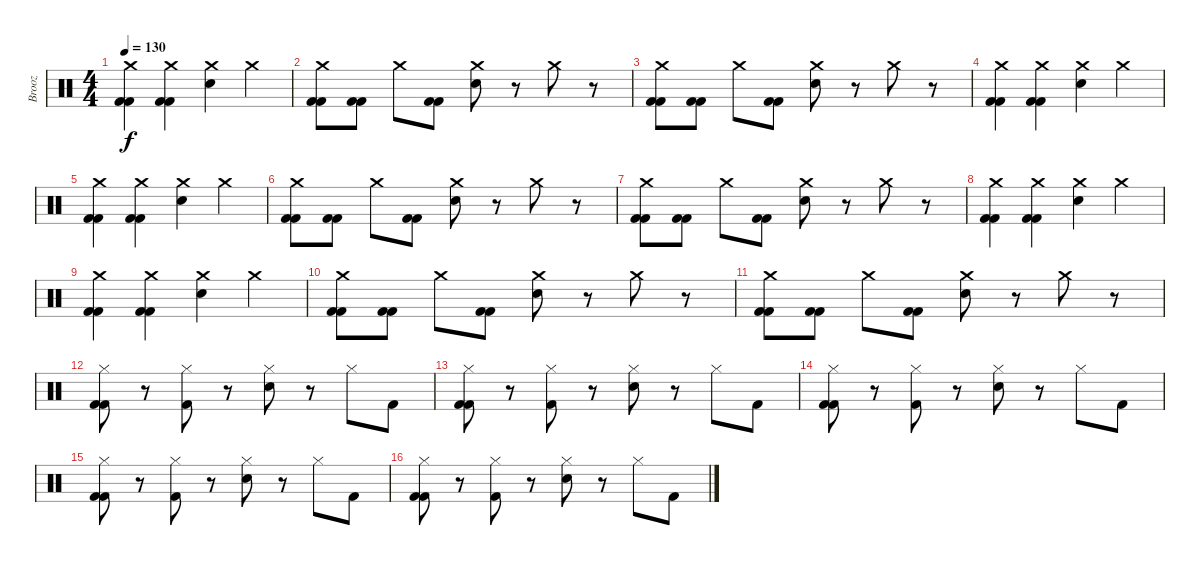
\track ("Brooz" "Brooz") {instrument percussion}
\staff {score}
\articulation defaults
\ts (4 4)
\tempo 130
\clef neutral
\ks c
("Kick (hit) 2" "Crash medium (hit)" "Kick (hit) 2").4{dy f} ("Kick (hit) 2" "Crash medium (hit)" "Kick (hit) 2").4 ("Crash medium (hit)" "Electric Snare (hit)").4 "Crash medium (hit)".4 |
("Kick (hit) 2" "Crash medium (hit)" "Kick (hit) 2").8 ("Kick (hit) 2" "Kick (hit) 2").8 "Crash medium (hit)".8 ("Kick (hit) 2" "Kick (hit) 2").8 ("Crash medium (hit)" "Electric Snare (hit)").8 r.8 "Crash medium (hit)".8 r.8 |
("Kick (hit) 2" "Crash medium (hit)" "Kick (hit) 2").8 ("Kick (hit) 2" "Kick (hit) 2").8 "Crash medium (hit)".8 ("Kick (hit) 2" "Kick (hit) 2").8 ("Crash medium (hit)" "Electric Snare (hit)").8 r.8 "Crash medium (hit)".8 r.8 |
("Kick (hit) 2" "Crash medium (hit)" "Kick (hit) 2").4 ("Kick (hit) 2" "Crash medium (hit)" "Kick (hit) 2").4 ("Crash medium (hit)" "Electric Snare (hit)").4 "Crash medium (hit)".4 |
("Kick (hit) 2" "Crash medium (hit)" "Kick (hit) 2").4 ("Kick (hit) 2" "Crash medium (hit)" "Kick (hit) 2").4 ("Crash medium (hit)" "Electric Snare (hit)").4 "Crash medium (hit)".4 |
("Kick (hit) 2" "Crash medium (hit)" "Kick (hit) 2").8 ("Kick (hit) 2" "Kick (hit) 2").8 "Crash medium (hit)".8 ("Kick (hit) 2" "Kick (hit) 2").8 ("Crash medium (hit)" "Electric Snare (hit)").8 r.8 "Crash medium (hit)".8 r.8 |
("Kick (hit) 2" "Crash medium (hit)" "Kick (hit) 2").8 ("Kick (hit) 2" "Kick (hit) 2").8 "Crash medium (hit)".8 ("Kick (hit) 2" "Kick (hit) 2").8 ("Crash medium (hit)" "Electric Snare (hit)").8 r.8 "Crash medium (hit)".8 r.8 |
("Kick (hit) 2" "Crash medium (hit)" "Kick (hit) 2").4 ("Kick (hit) 2" "Crash medium (hit)" "Kick (hit) 2").4 ("Crash medium (hit)" "Electric Snare (hit)").4 "Crash medium (hit)".4 |
("Kick (hit) 2" "Crash medium (hit)" "Kick (hit) 2").4 ("Kick (hit) 2" "Crash medium (hit)" "Kick (hit) 2").4 ("Crash medium (hit)" "Electric Snare (hit)").4 "Crash medium (hit)".4 |
("Kick (hit) 2" "Crash medium (hit)" "Kick (hit) 2").8 ("Kick (hit) 2" "Kick (hit) 2").8 "Crash medium (hit)".8 ("Kick (hit) 2" "Kick (hit) 2").8 ("Crash medium (hit)" "Electric Snare (hit)").8 r.8 "Crash medium (hit)".8 r.8 |
("Kick (hit) 2" "Crash medium (hit)" "Kick (hit) 2").8 ("Kick (hit) 2" "Kick (hit) 2").8 "Crash medium (hit)".8 ("Kick (hit) 2" "Kick (hit) 2").8 ("Crash medium (hit)" "Electric Snare (hit)").8 r.8 "Crash medium (hit)".8 r.8 |
("Kick (hit) 2" "Hi-Hat (closed)" "Kick (hit) 2").8 r.8 ("Hi-Hat (closed)" "Kick (hit) 2").8 r.8 ("Hi-Hat (closed)" "Electric Snare (hit)").8 r.8 "Hi-Hat (closed)".8 "Kick (hit) 2".8 |
("Kick (hit) 2" "Hi-Hat (closed)" "Kick (hit) 2").8 r.8 ("Hi-Hat (closed)" "Kick (hit) 2").8 r.8 ("Hi-Hat (closed)" "Electric Snare (hit)").8 r.8 "Hi-Hat (closed)".8 "Kick (hit) 2".8 |
("Kick (hit) 2" "Hi-Hat (closed)" "Kick (hit) 2").8 r.8 ("Hi-Hat (closed)" "Kick (hit) 2").8 r.8 ("Hi-Hat (closed)" "Electric Snare (hit)").8 r.8 "Hi-Hat (closed)".8 "Kick (hit) 2".8 |
("Kick (hit) 2" "Hi-Hat (closed)" "Kick (hit) 2").8 r.8 ("Hi-Hat (closed)" "Kick (hit) 2").8 r.8 ("Hi-Hat (closed)" "Electric Snare (hit)").8 r.8 "Hi-Hat (closed)".8 "Kick (hit) 2".8 |
("Kick (hit) 2" "Hi-Hat (closed)" "Kick (hit) 2").8 r.8 ("Hi-Hat (closed)" "Kick (hit) 2").8 r.8 ("Hi-Hat (closed)" "Electric Snare (hit)").8 r.8 "Hi-Hat (closed)".8 "Kick (hit) 2".8
